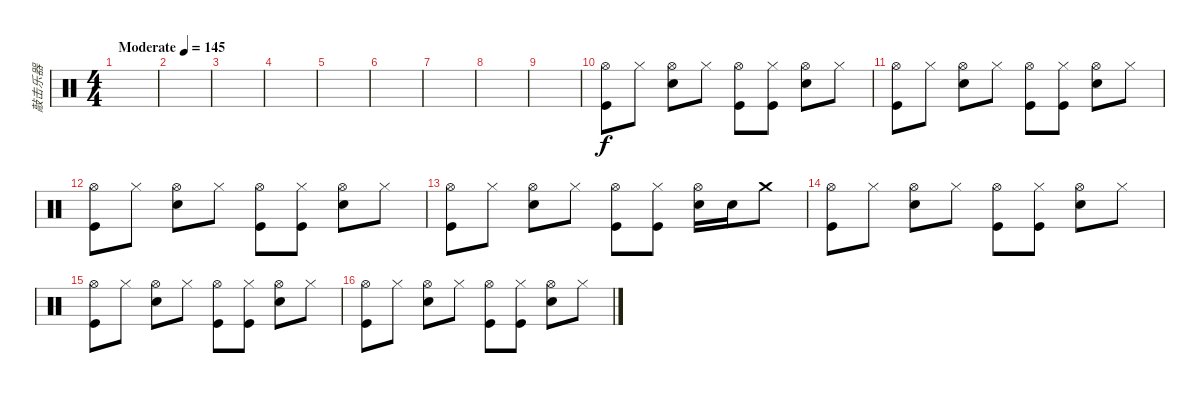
\track ("敲击乐器" "敲击乐器") {instrument percussion}
\staff {score}
\articulation defaults
\ts (4 4)
\tempo (145 "Moderate")
\clef neutral
\ks c
|
|
|
|
|
|
|
|
|
("Hi-Hat (open)" "Kick (hit)").8 "Hi-Hat (closed)".8{dy f} ("Hi-Hat (open)" "Snare (hit) 2").8 "Hi-Hat (closed)".8 ("Hi-Hat (open)" "Kick (hit)").8 ("Hi-Hat (closed)" "Kick (hit)").8 ("Hi-Hat (open)" "Snare (hit) 2").8 "Hi-Hat (closed)".8 |
("Hi-Hat (open)" "Kick (hit)").8 "Hi-Hat (closed)".8 ("Hi-Hat (open)" "Snare (hit) 2").8 "Hi-Hat (closed)".8 ("Hi-Hat (open)" "Kick (hit)").8 ("Hi-Hat (closed)" "Kick (hit)").8 ("Hi-Hat (open)" "Snare (hit) 2").8 "Hi-Hat (closed)".8 |
("Hi-Hat (open)" "Kick (hit)").8 "Hi-Hat (closed)".8 ("Hi-Hat (open)" "Snare (hit) 2").8 "Hi-Hat (closed)".8 ("Hi-Hat (open)" "Kick (hit)").8 ("Hi-Hat (closed)" "Kick (hit)").8 ("Hi-Hat (open)" "Snare (hit) 2").8 "Hi-Hat (closed)".8 |
("Hi-Hat (open)" "Kick (hit)").8 "Hi-Hat (closed)".8 ("Hi-Hat (open)" "Snare (hit) 2").8 "Hi-Hat (closed)".8 ("Hi-Hat (open)" "Kick (hit)").8 ("Hi-Hat (closed)" "Kick (hit)").8 ("Hi-Hat (open)" "Snare (hit) 2").16 "Snare (hit) 2".16 "Crash medium (hit)".8 |
("Hi-Hat (open)" "Kick (hit)").8 "Hi-Hat (closed)".8 ("Hi-Hat (open)" "Snare (hit) 2").8 "Hi-Hat (closed)".8 ("Hi-Hat (open)" "Kick (hit)").8 ("Hi-Hat (closed)" "Kick (hit)").8 ("Hi-Hat (open)" "Snare (hit) 2").8 "Hi-Hat (closed)".8 |
("Hi-Hat (open)" "Kick (hit)").8 "Hi-Hat (closed)".8 ("Hi-Hat (open)" "Snare (hit) 2").8 "Hi-Hat (closed)".8 ("Hi-Hat (open)" "Kick (hit)").8 ("Hi-Hat (closed)" "Kick (hit)").8 ("Hi-Hat (open)" "Snare (hit) 2").8 "Hi-Hat (closed)".8 |
("Hi-Hat (open)" "Kick (hit)").8 "Hi-Hat (closed)".8 ("Hi-Hat (open)" "Snare (hit) 2").8 "Hi-Hat (closed)".8 ("Hi-Hat (open)" "Kick (hit)").8 ("Hi-Hat (closed)" "Kick (hit)").8 ("Hi-Hat (open)" "Snare (hit) 2").8 "Hi-Hat (closed)".8
